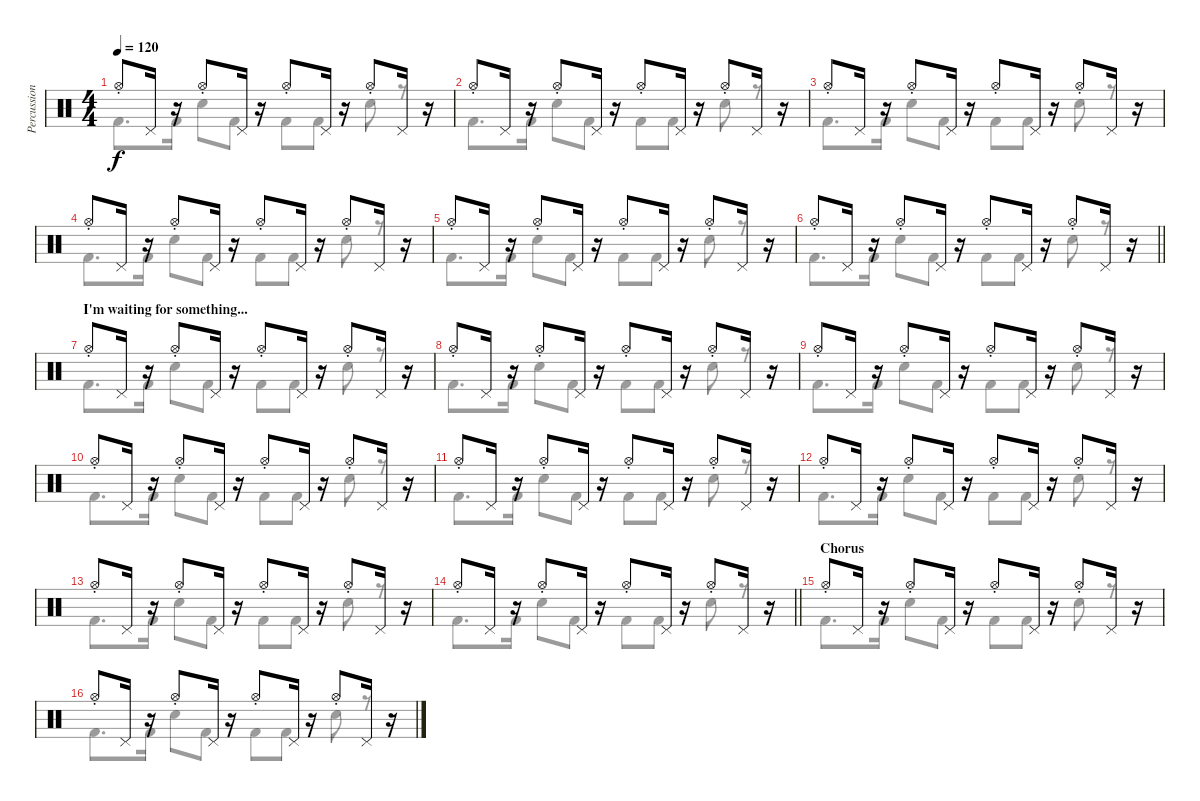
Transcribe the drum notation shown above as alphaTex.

\track ("Percussion" "Percussion") {instrument percussion}
\staff {score}
\articulation defaults
\voice
\ts (4 4)
\tempo 120
\clef neutral
\ks c "Hi-Hat (open)"{st}.8{dy f} "Pedal Hi-Hat (hit)".16
r.16 "Hi-Hat (open)"{st}.8 "Pedal Hi-Hat (hit)".16 r.16 "Hi-Hat (open)"{st}.8 "Pedal Hi-Hat (hit)".16 r.16 "Hi-Hat (open)"{st}.8 "Pedal Hi-Hat (hit)".16 r.16 |
"Hi-Hat (open)"{st}.8 "Pedal Hi-Hat (hit)".16 r.16 "Hi-Hat (open)"{st}.8 "Pedal Hi-Hat (hit)".16 r.16 "Hi-Hat (open)"{st}.8 "Pedal Hi-Hat (hit)".16 r.16 "Hi-Hat (open)"{st}.8 "Pedal Hi-Hat (hit)".16 r.16 |
"Hi-Hat (open)"{st}.8 "Pedal Hi-Hat (hit)".16 r.16 "Hi-Hat (open)"{st}.8 "Pedal Hi-Hat (hit)".16 r.16 "Hi-Hat (open)"{st}.8 "Pedal Hi-Hat (hit)".16 r.16 "Hi-Hat (open)"{st}.8 "Pedal Hi-Hat (hit)".16 r.16 |
"Hi-Hat (open)"{st}.8 "Pedal Hi-Hat (hit)".16 r.16 "Hi-Hat (open)"{st}.8 "Pedal Hi-Hat (hit)".16 r.16 "Hi-Hat (open)"{st}.8 "Pedal Hi-Hat (hit)".16 r.16 "Hi-Hat (open)"{st}.8 "Pedal Hi-Hat (hit)".16 r.16 |
"Hi-Hat (open)"{st}.8 "Pedal Hi-Hat (hit)".16 r.16 "Hi-Hat (open)"{st}.8 "Pedal Hi-Hat (hit)".16 r.16 "Hi-Hat (open)"{st}.8 "Pedal Hi-Hat (hit)".16 r.16 "Hi-Hat (open)"{st}.8 "Pedal Hi-Hat (hit)".16 r.16 |
\barLineRight lightlight "Hi-Hat (open)"{st}.8 "Pedal Hi-Hat (hit)".16
r.16 "Hi-Hat (open)"{st}.8 "Pedal Hi-Hat (hit)".16 r.16 "Hi-Hat (open)"{st}.8 "Pedal Hi-Hat (hit)".16 r.16 "Hi-Hat (open)"{st}.8 "Pedal Hi-Hat (hit)".16 r.16 |
\section ("" "I'm waiting for something...")
"Hi-Hat (open)"{st}.8 "Pedal Hi-Hat (hit)".16 r.16 "Hi-Hat (open)"{st}.8 "Pedal Hi-Hat (hit)".16 r.16 "Hi-Hat (open)"{st}.8 "Pedal Hi-Hat (hit)".16 r.16 "Hi-Hat (open)"{st}.8 "Pedal Hi-Hat (hit)".16 r.16 |
"Hi-Hat (open)"{st}.8 "Pedal Hi-Hat (hit)".16 r.16 "Hi-Hat (open)"{st}.8 "Pedal Hi-Hat (hit)".16 r.16 "Hi-Hat (open)"{st}.8 "Pedal Hi-Hat (hit)".16 r.16 "Hi-Hat (open)"{st}.8 "Pedal Hi-Hat (hit)".16 r.16 |
"Hi-Hat (open)"{st}.8 "Pedal Hi-Hat (hit)".16 r.16 "Hi-Hat (open)"{st}.8 "Pedal Hi-Hat (hit)".16 r.16 "Hi-Hat (open)"{st}.8 "Pedal Hi-Hat (hit)".16 r.16 "Hi-Hat (open)"{st}.8 "Pedal Hi-Hat (hit)".16 r.16 |
"Hi-Hat (open)"{st}.8 "Pedal Hi-Hat (hit)".16 r.16 "Hi-Hat (open)"{st}.8 "Pedal Hi-Hat (hit)".16 r.16 "Hi-Hat (open)"{st}.8 "Pedal Hi-Hat (hit)".16 r.16 "Hi-Hat (open)"{st}.8 "Pedal Hi-Hat (hit)".16 r.16 |
"Hi-Hat (open)"{st}.8 "Pedal Hi-Hat (hit)".16 r.16 "Hi-Hat (open)"{st}.8 "Pedal Hi-Hat (hit)".16 r.16 "Hi-Hat (open)"{st}.8 "Pedal Hi-Hat (hit)".16 r.16 "Hi-Hat (open)"{st}.8 "Pedal Hi-Hat (hit)".16 r.16 |
"Hi-Hat (open)"{st}.8 "Pedal Hi-Hat (hit)".16 r.16 "Hi-Hat (open)"{st}.8 "Pedal Hi-Hat (hit)".16 r.16 "Hi-Hat (open)"{st}.8 "Pedal Hi-Hat (hit)".16 r.16 "Hi-Hat (open)"{st}.8 "Pedal Hi-Hat (hit)".16 r.16 |
"Hi-Hat (open)"{st}.8 "Pedal Hi-Hat (hit)".16 r.16 "Hi-Hat (open)"{st}.8 "Pedal Hi-Hat (hit)".16 r.16 "Hi-Hat (open)"{st}.8 "Pedal Hi-Hat (hit)".16 r.16 "Hi-Hat (open)"{st}.8 "Pedal Hi-Hat (hit)".16 r.16 |
\barLineRight lightlight "Hi-Hat (open)"{st}.8 "Pedal Hi-Hat (hit)".16
r.16 "Hi-Hat (open)"{st}.8 "Pedal Hi-Hat (hit)".16 r.16 "Hi-Hat (open)"{st}.8 "Pedal Hi-Hat (hit)".16 r.16 "Hi-Hat (open)"{st}.8 "Pedal Hi-Hat (hit)".16 r.16 |
\section ("" "Chorus")
"Hi-Hat (open)"{st}.8 "Pedal Hi-Hat (hit)".16 r.16 "Hi-Hat (open)"{st}.8 "Pedal Hi-Hat (hit)".16 r.16 "Hi-Hat (open)"{st}.8 "Pedal Hi-Hat (hit)".16 r.16 "Hi-Hat (open)"{st}.8 "Pedal Hi-Hat (hit)".16 r.16 |
"Hi-Hat (open)"{st}.8 "Pedal Hi-Hat (hit)".16 r.16 "Hi-Hat (open)"{st}.8 "Pedal Hi-Hat (hit)".16 r.16 "Hi-Hat (open)"{st}.8 "Pedal Hi-Hat (hit)".16 r.16 "Hi-Hat (open)"{st}.8 "Pedal Hi-Hat (hit)".16 r.16
\voice
\clef neutral
\ottava regular
\simile none
\ks c "Kick (hit) 2".8{d dy f} "Kick (hit) 2".16 "Electric Snare (hit)".8 "Kick (hit) 2".8 "Kick (hit) 2".8 "Kick (hit) 2".8 "Electric Snare (hit)".8
r.8 |
"Kick (hit) 2".8{d} "Kick (hit) 2".16 "Electric Snare (hit)".8 "Kick (hit) 2".8 "Kick (hit) 2".8 "Kick (hit) 2".8 "Electric Snare (hit)".8 r.8 |
"Kick (hit) 2".8{d} "Kick (hit) 2".16 "Electric Snare (hit)".8 "Kick (hit) 2".8 "Kick (hit) 2".8 "Kick (hit) 2".8 "Electric Snare (hit)".8 r.8 |
"Kick (hit) 2".8{d} "Kick (hit) 2".16 "Electric Snare (hit)".8 "Kick (hit) 2".8 "Kick (hit) 2".8 "Kick (hit) 2".8 "Electric Snare (hit)".8 r.8 |
"Kick (hit) 2".8{d} "Kick (hit) 2".16 "Electric Snare (hit)".8 "Kick (hit) 2".8 "Kick (hit) 2".8 "Kick (hit) 2".8 "Electric Snare (hit)".8 r.8 |
\barLineRight lightlight "Kick (hit) 2".8{d} "Kick (hit) 2".16 "Electric Snare (hit)".8 "Kick (hit) 2".8 "Kick (hit) 2".8 "Kick (hit) 2".8 "Electric Snare (hit)".8
r.8 |
"Kick (hit) 2".8{d} "Kick (hit) 2".16 "Electric Snare (hit)".8 "Kick (hit) 2".8 "Kick (hit) 2".8 "Kick (hit) 2".8 "Electric Snare (hit)".8 r.8 |
"Kick (hit) 2".8{d} "Kick (hit) 2".16 "Electric Snare (hit)".8 "Kick (hit) 2".8 "Kick (hit) 2".8 "Kick (hit) 2".8 "Electric Snare (hit)".8 r.8 |
"Kick (hit) 2".8{d} "Kick (hit) 2".16 "Electric Snare (hit)".8 "Kick (hit) 2".8 "Kick (hit) 2".8 "Kick (hit) 2".8 "Electric Snare (hit)".8 r.8 |
"Kick (hit) 2".8{d} "Kick (hit) 2".16 "Electric Snare (hit)".8 "Kick (hit) 2".8 "Kick (hit) 2".8 "Kick (hit) 2".8 "Electric Snare (hit)".8 r.8 |
"Kick (hit) 2".8{d} "Kick (hit) 2".16 "Electric Snare (hit)".8 "Kick (hit) 2".8 "Kick (hit) 2".8 "Kick (hit) 2".8 "Electric Snare (hit)".8 r.8 |
"Kick (hit) 2".8{d} "Kick (hit) 2".16 "Electric Snare (hit)".8 "Kick (hit) 2".8 "Kick (hit) 2".8 "Kick (hit) 2".8 "Electric Snare (hit)".8 r.8 |
"Kick (hit) 2".8{d} "Kick (hit) 2".16 "Electric Snare (hit)".8 "Kick (hit) 2".8 "Kick (hit) 2".8 "Kick (hit) 2".8 "Electric Snare (hit)".8 r.8 |
\barLineRight lightlight "Kick (hit) 2".8{d} "Kick (hit) 2".16 "Electric Snare (hit)".8 "Kick (hit) 2".8 "Kick (hit) 2".8 "Kick (hit) 2".8 "Electric Snare (hit)".8
r.8 |
"Kick (hit) 2".8{d} "Kick (hit) 2".16 "Electric Snare (hit)".8 "Kick (hit) 2".8 "Kick (hit) 2".8 "Kick (hit) 2".8 "Electric Snare (hit)".8 r.8 |
"Kick (hit) 2".8{d} "Kick (hit) 2".16 "Electric Snare (hit)".8 "Kick (hit) 2".8 "Kick (hit) 2".8 "Kick (hit) 2".8 "Electric Snare (hit)".8 r.8
